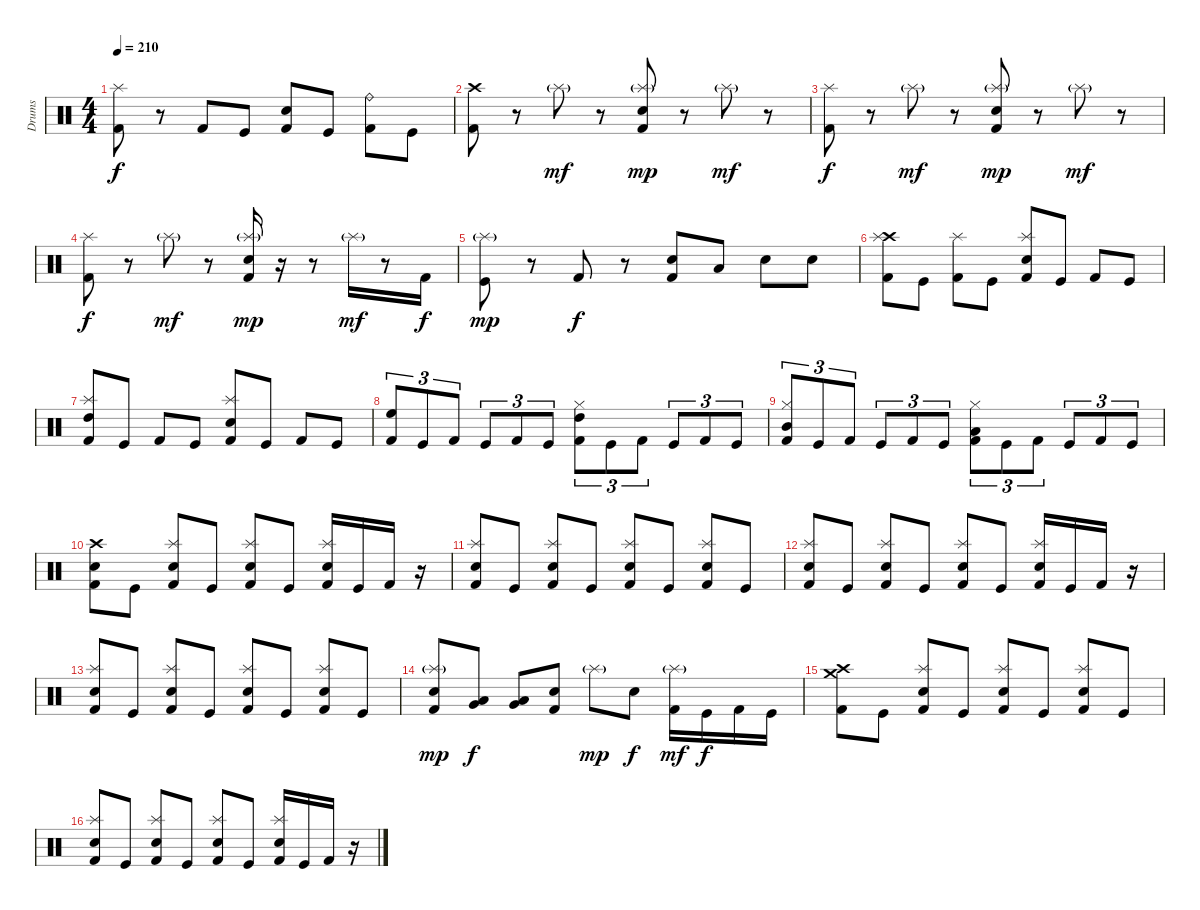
\track ("Drums" "Drums") {instrument percussion}
\staff {score}
\articulation defaults
\ts (4 4)
\tempo 210
\clef neutral
\ks c
("Kick (hit) 2" "Splash (hit)").8{dy f} r.8 "Kick (hit) 2".8 "Kick (hit)".8 ("Kick (hit) 2" "Electric Snare (hit)").8 "Kick (hit)".8 ("Kick (hit) 2" "Ride (bell)").8 "Kick (hit)".8 |
("Kick (hit) 2" "Crash high (hit)").8 r.8 "Splash (hit)"{g}.8{dy mf} r.8 ("Kick (hit) 2" "Electric Snare (hit)" "Splash (hit)"{g}).8{dy mp} r.8 "Splash (hit)"{g}.8{dy mf} r.8 |
("Kick (hit) 2" "Splash (hit)").8{dy f} r.8 "Splash (hit)"{g}.8{dy mf} r.8 ("Kick (hit) 2" "Electric Snare (hit)" "Splash (hit)"{g}).8{dy mp} r.8 "Splash (hit)"{g}.8{dy mf} r.8 |
("Kick (hit) 2" "Splash (hit)").8{dy f} r.8 "Splash (hit)"{g}.8{dy mf} r.8 ("Kick (hit) 2" "Electric Snare (hit)" "Splash (hit)"{g}).16{dy mp} r.16 r.8 "Splash (hit)"{g}.16{dy mf} r.8 "Kick (hit) 2".16{dy f} |
("Kick (hit)" "Splash (hit)"{g}).8{dy mp} r.8 "Kick (hit) 2".8{dy f} r.8 ("Kick (hit) 2" "Electric Snare (hit)").8 "Low Tom (hit)".8 "Electric Snare (hit)".8 "Electric Snare (hit)".8 |
("Kick (hit) 2" "Crash high (hit)" "Splash (hit)").8 "Kick (hit)".8 ("Kick (hit) 2" "Splash (hit)").8 "Kick (hit)".8 ("Kick (hit) 2" "Electric Snare (hit)" "Splash (hit)").8 "Kick (hit)".8 "Kick (hit) 2".8 "Kick (hit)".8 |
("Kick (hit) 2" "High Tom (hit)" "Splash (hit)").8 "Kick (hit)".8 "Kick (hit) 2".8 "Kick (hit)".8 ("Kick (hit) 2" "Electric Snare (hit)" "Splash (hit)").8 "Kick (hit)".8 "Kick (hit) 2".8 "Kick (hit)".8 |
("Kick (hit) 2" "High Floor Tom (hit)").8{tu (3 2)} "Kick (hit)".8{tu (3 2)} "Kick (hit) 2".8{tu (3 2)} "Kick (hit)".8{tu (3 2)} "Kick (hit) 2".8{tu (3 2)} "Kick (hit)".8{tu (3 2)} ("Kick (hit) 2" "High Tom (hit)" "Hi-Hat (closed)").8{tu (3 2)} "Kick (hit)".8{tu (3 2)} "Kick (hit) 2".8{tu (3 2)} "Kick (hit)".8{tu (3 2)} "Kick (hit) 2".8{tu (3 2)} "Kick (hit)".8{tu (3 2)} |
("Kick (hit) 2" "Mid Tom (hit)" "Hi-Hat (closed)").8{tu (3 2)} "Kick (hit)".8{tu (3 2)} "Kick (hit) 2".8{tu (3 2)} "Kick (hit)".8{tu (3 2)} "Kick (hit) 2".8{tu (3 2)} "Kick (hit)".8{tu (3 2)} ("Kick (hit) 2" "Low Tom (hit)" "Hi-Hat (closed)").8{tu (3 2)} "Kick (hit)".8{tu (3 2)} "Kick (hit) 2".8{tu (3 2)} "Kick (hit)".8{tu (3 2)} "Kick (hit) 2".8{tu (3 2)} "Kick (hit)".8{tu (3 2)} |
("Kick (hit) 2" "Electric Snare (hit)" "Crash high (hit)").8 "Kick (hit)".8 ("Kick (hit) 2" "Electric Snare (hit)" "Splash (hit)").8 "Kick (hit)".8 ("Kick (hit) 2" "Electric Snare (hit)" "Splash (hit)").8 "Kick (hit)".8 ("Kick (hit) 2" "Electric Snare (hit)" "Splash (hit)").16 "Kick (hit)".16 "Kick (hit) 2".16 r.16 |
("Kick (hit) 2" "Splash (hit)" "Electric Snare (hit)").8 "Kick (hit)".8 ("Kick (hit) 2" "Splash (hit)" "Electric Snare (hit)").8 "Kick (hit)".8 ("Kick (hit) 2" "Splash (hit)" "Electric Snare (hit)").8 "Kick (hit)".8 ("Kick (hit) 2" "Splash (hit)" "Electric Snare (hit)").8 "Kick (hit)".8 |
("Kick (hit) 2" "Electric Snare (hit)" "Splash (hit)").8 "Kick (hit)".8 ("Kick (hit) 2" "Electric Snare (hit)" "Splash (hit)").8 "Kick (hit)".8 ("Kick (hit) 2" "Electric Snare (hit)" "Splash (hit)").8 "Kick (hit)".8 ("Kick (hit) 2" "Electric Snare (hit)" "Splash (hit)").16 "Kick (hit)".16 "Kick (hit) 2".16 r.16 |
("Kick (hit) 2" "Splash (hit)" "Electric Snare (hit)").8 "Kick (hit)".8 ("Kick (hit) 2" "Splash (hit)" "Electric Snare (hit)").8 "Kick (hit)".8 ("Kick (hit) 2" "Splash (hit)" "Electric Snare (hit)").8 "Kick (hit)".8 ("Kick (hit) 2" "Splash (hit)" "Electric Snare (hit)").8 "Kick (hit)".8 |
("Kick (hit) 2" "Electric Snare (hit)" "Splash (hit)"{g}).8{dy mp} ("Very Low Tom (hit)" "Low Floor Tom (hit)").8{dy f} ("Very Low Tom (hit)" "Low Floor Tom (hit)").8 ("Kick (hit) 2" "Electric Snare (hit)").8 "Splash (hit)"{g}.8{dy mp} "Electric Snare (hit)".8{dy f} ("Kick (hit) 2" "Splash (hit)"{g}).16{dy mf} "Kick (hit)".16{dy f} "Kick (hit) 2".16 "Kick (hit)".16 |
("Kick (hit) 2" "Crash high (hit)" "Crash medium (hit)").8 "Kick (hit)".8 ("Kick (hit) 2" "Splash (hit)" "Electric Snare (hit)").8 "Kick (hit)".8 ("Kick (hit) 2" "Splash (hit)" "Electric Snare (hit)").8 "Kick (hit)".8 ("Kick (hit) 2" "Splash (hit)" "Electric Snare (hit)").8 "Kick (hit)".8 |
("Kick (hit) 2" "Electric Snare (hit)" "Splash (hit)").8 "Kick (hit)".8 ("Kick (hit) 2" "Electric Snare (hit)" "Splash (hit)").8 "Kick (hit)".8 ("Kick (hit) 2" "Electric Snare (hit)" "Splash (hit)").8 "Kick (hit)".8 ("Kick (hit) 2" "Electric Snare (hit)" "Splash (hit)").16 "Kick (hit)".16 "Kick (hit) 2".16 r.16
